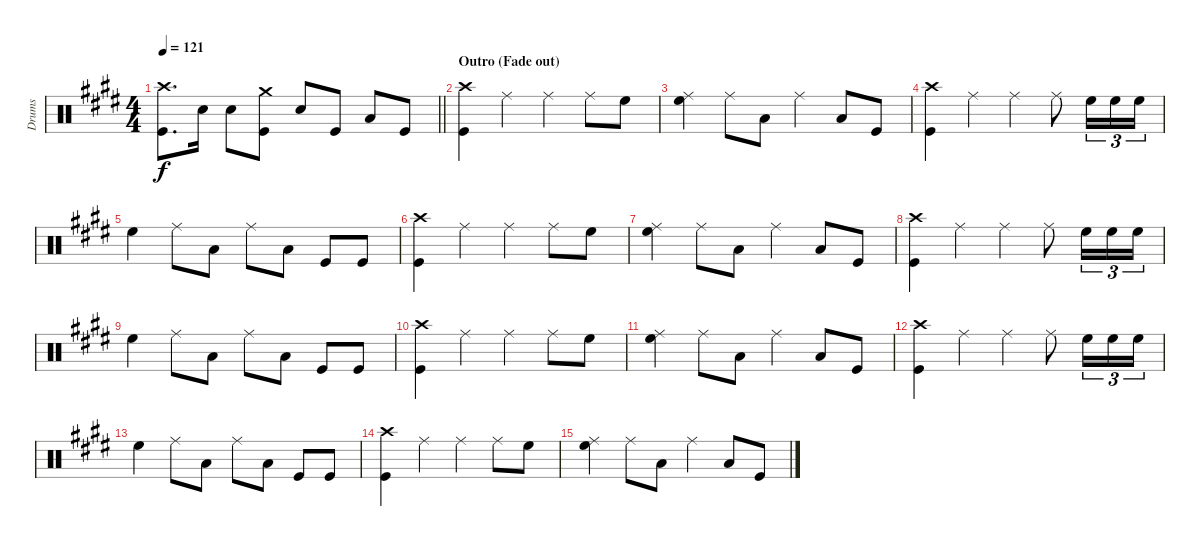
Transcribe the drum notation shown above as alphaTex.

\track ("Drums" "Drums") {instrument percussion}
\staff {score}
\articulation defaults
\ts (4 4)
\tempo 121
\clef neutral
\barLineRight lightlight
\ks e
("Crash high (hit)" "Kick (hit)").8{d dy f} "Snare (hit) 2".16 "Snare (hit) 2".8 ("Crash medium (hit)" "Kick (hit)").8 "Snare (hit) 2".8 "Kick (hit)".8 "Low Floor Tom (hit)".8 "Kick (hit)".8 |
\section ("" "Outro (Fade out)")
("Crash high (hit)" "Kick (hit)").4 "Ride (middle)".4 "Ride (middle)".4 "Ride (middle)".8 "High Floor Tom (hit)".8 |
("Ride (middle)" "High Floor Tom (hit)").4 "Ride (middle)".8 "Low Tom (hit)".8 "Ride (middle)".4 "Low Floor Tom (hit)".8 "Kick (hit)".8 |
("Crash high (hit)" "Kick (hit)").4 "Ride (middle)".4 "Ride (middle)".4 "Ride (middle)".8 "High Floor Tom (hit)".16{tu (3 2)} "High Floor Tom (hit)".16{tu (3 2)} "High Floor Tom (hit)".16{tu (3 2)} |
"High Floor Tom (hit)".4 "Ride (middle)".8 "Low Tom (hit)".8 "Ride (middle)".8 "Low Floor Tom (hit)".8 "Kick (hit)".8 "Kick (hit)".8 |
("Crash high (hit)" "Kick (hit)").4{volume 8} "Ride (middle)".4 "Ride (middle)".4 "Ride (middle)".8 "High Floor Tom (hit)".8 |
("Ride (middle)" "High Floor Tom (hit)").4 "Ride (middle)".8 "Low Tom (hit)".8 "Ride (middle)".4 "Low Floor Tom (hit)".8 "Kick (hit)".8 |
("Crash high (hit)" "Kick (hit)").4 "Ride (middle)".4 "Ride (middle)".4 "Ride (middle)".8 "High Floor Tom (hit)".16{tu (3 2)} "High Floor Tom (hit)".16{tu (3 2)} "High Floor Tom (hit)".16{tu (3 2)} |
"High Floor Tom (hit)".4 "Ride (middle)".8 "Low Tom (hit)".8 "Ride (middle)".8 "Low Floor Tom (hit)".8 "Kick (hit)".8 "Kick (hit)".8 |
("Crash high (hit)" "Kick (hit)").4{volume 3} "Ride (middle)".4 "Ride (middle)".4 "Ride (middle)".8 "High Floor Tom (hit)".8 |
("Ride (middle)" "High Floor Tom (hit)").4 "Ride (middle)".8 "Low Tom (hit)".8 "Ride (middle)".4 "Low Floor Tom (hit)".8 "Kick (hit)".8 |
("Crash high (hit)" "Kick (hit)").4 "Ride (middle)".4 "Ride (middle)".4 "Ride (middle)".8 "High Floor Tom (hit)".16{tu (3 2)} "High Floor Tom (hit)".16{tu (3 2)} "High Floor Tom (hit)".16{tu (3 2)} |
"High Floor Tom (hit)".4 "Ride (middle)".8 "Low Tom (hit)".8 "Ride (middle)".8 "Low Floor Tom (hit)".8 "Kick (hit)".8 "Kick (hit)".8 |
("Crash high (hit)" "Kick (hit)").4{volume 0} "Ride (middle)".4 "Ride (middle)".4 "Ride (middle)".8 "High Floor Tom (hit)".8 |
("Ride (middle)" "High Floor Tom (hit)").4 "Ride (middle)".8 "Low Tom (hit)".8 "Ride (middle)".4 "Low Floor Tom (hit)".8 "Kick (hit)".8
